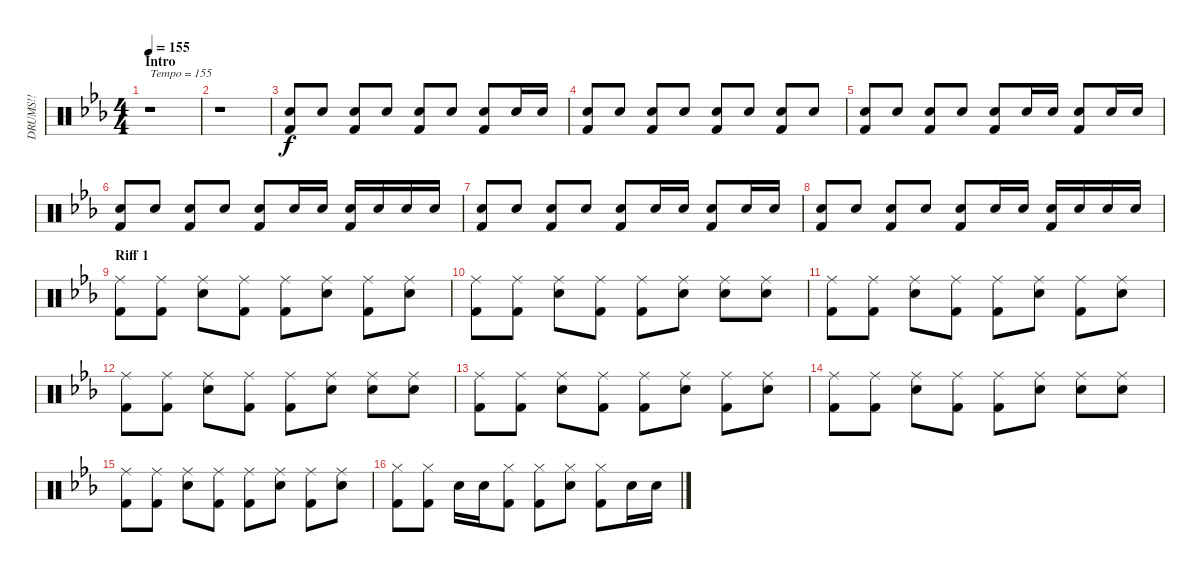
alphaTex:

\track ("DRUMS!!" "DRUMS!!") {instrument percussion}
\staff {score}
\articulation defaults
\ts (4 4)
\section ("" "Intro")
\tempo 155
\clef neutral
\ks cminor
r.1{txt "Tempo = 155" dy f} |
r.1 |
("Snare (hit) 2" "Kick (hit) 2").8 "Snare (hit) 2".8 ("Snare (hit) 2" "Kick (hit) 2").8 "Snare (hit) 2".8 ("Snare (hit) 2" "Kick (hit) 2").8 "Snare (hit) 2".8 ("Snare (hit) 2" "Kick (hit) 2").8 "Snare (hit) 2".16 "Snare (hit) 2".16 |
("Snare (hit) 2" "Kick (hit) 2").8 "Snare (hit) 2".8 ("Snare (hit) 2" "Kick (hit) 2").8 "Snare (hit) 2".8 ("Snare (hit) 2" "Kick (hit) 2").8 "Snare (hit) 2".8 ("Snare (hit) 2" "Kick (hit) 2").8 "Snare (hit) 2".8 |
("Snare (hit) 2" "Kick (hit) 2").8 "Snare (hit) 2".8 ("Snare (hit) 2" "Kick (hit) 2").8 "Snare (hit) 2".8 ("Snare (hit) 2" "Kick (hit) 2").8 "Snare (hit) 2".16 "Snare (hit) 2".16 ("Snare (hit) 2" "Kick (hit) 2").8 "Snare (hit) 2".16 "Snare (hit) 2".16 |
("Snare (hit) 2" "Kick (hit) 2").8 "Snare (hit) 2".8 ("Snare (hit) 2" "Kick (hit) 2").8 "Snare (hit) 2".8 ("Snare (hit) 2" "Kick (hit) 2").8 "Snare (hit) 2".16 "Snare (hit) 2".16 ("Snare (hit) 2" "Kick (hit) 2").16 "Snare (hit) 2".16 "Snare (hit) 2".16 "Snare (hit) 2".16 |
("Snare (hit) 2" "Kick (hit) 2").8 "Snare (hit) 2".8 ("Snare (hit) 2" "Kick (hit) 2").8 "Snare (hit) 2".8 ("Snare (hit) 2" "Kick (hit) 2").8 "Snare (hit) 2".16 "Snare (hit) 2".16 ("Snare (hit) 2" "Kick (hit) 2").8 "Snare (hit) 2".16 "Snare (hit) 2".16 |
("Snare (hit) 2" "Kick (hit) 2").8 "Snare (hit) 2".8 ("Snare (hit) 2" "Kick (hit) 2").8 "Snare (hit) 2".8 ("Snare (hit) 2" "Kick (hit) 2").8 "Snare (hit) 2".16 "Snare (hit) 2".16 ("Snare (hit) 2" "Kick (hit) 2").16 "Snare (hit) 2".16 "Snare (hit) 2".16 "Snare (hit) 2".16 |
\section ("" "Riff 1")
("Ride (middle)" "Kick (hit) 2").8 ("Ride (middle)" "Kick (hit) 2").8 ("Ride (middle)" "Snare (hit) 2").8 ("Ride (middle)" "Kick (hit) 2").8 ("Ride (middle)" "Kick (hit) 2").8 ("Ride (middle)" "Snare (hit) 2").8 ("Ride (middle)" "Kick (hit) 2").8 ("Ride (middle)" "Snare (hit) 2").8 |
("Ride (middle)" "Kick (hit) 2").8 ("Ride (middle)" "Kick (hit) 2").8 ("Ride (middle)" "Snare (hit) 2").8 ("Ride (middle)" "Kick (hit) 2").8 ("Ride (middle)" "Kick (hit) 2").8 ("Ride (middle)" "Snare (hit) 2").8 ("Ride (middle)" "Snare (hit) 2").8 ("Ride (middle)" "Snare (hit) 2").8 |
("Ride (middle)" "Kick (hit) 2").8 ("Ride (middle)" "Kick (hit) 2").8 ("Ride (middle)" "Snare (hit) 2").8 ("Ride (middle)" "Kick (hit) 2").8 ("Ride (middle)" "Kick (hit) 2").8 ("Ride (middle)" "Snare (hit) 2").8 ("Ride (middle)" "Kick (hit) 2").8 ("Ride (middle)" "Snare (hit) 2").8 |
("Ride (middle)" "Kick (hit) 2").8 ("Ride (middle)" "Kick (hit) 2").8 ("Ride (middle)" "Snare (hit) 2").8 ("Ride (middle)" "Kick (hit) 2").8 ("Ride (middle)" "Kick (hit) 2").8 ("Ride (middle)" "Snare (hit) 2").8 ("Ride (middle)" "Snare (hit) 2").8 ("Ride (middle)" "Snare (hit) 2").8 |
("Ride (middle)" "Kick (hit) 2").8 ("Ride (middle)" "Kick (hit) 2").8 ("Ride (middle)" "Snare (hit) 2").8 ("Ride (middle)" "Kick (hit) 2").8 ("Ride (middle)" "Kick (hit) 2").8 ("Ride (middle)" "Snare (hit) 2").8 ("Ride (middle)" "Kick (hit) 2").8 ("Ride (middle)" "Snare (hit) 2").8 |
("Ride (middle)" "Kick (hit) 2").8 ("Ride (middle)" "Kick (hit) 2").8 ("Ride (middle)" "Snare (hit) 2").8 ("Ride (middle)" "Kick (hit) 2").8 ("Ride (middle)" "Kick (hit) 2").8 ("Ride (middle)" "Snare (hit) 2").8 ("Ride (middle)" "Snare (hit) 2").8 ("Ride (middle)" "Snare (hit) 2").8 |
("Ride (middle)" "Kick (hit) 2").8 ("Ride (middle)" "Kick (hit) 2").8 ("Ride (middle)" "Snare (hit) 2").8 ("Ride (middle)" "Kick (hit) 2").8 ("Ride (middle)" "Kick (hit) 2").8 ("Ride (middle)" "Snare (hit) 2").8 ("Ride (middle)" "Kick (hit) 2").8 ("Ride (middle)" "Snare (hit) 2").8 |
("Hi-Hat (closed)" "Kick (hit) 2").8 ("Hi-Hat (closed)" "Kick (hit) 2").8 "Snare (hit) 2".16 "Snare (hit) 2".16 ("Hi-Hat (closed)" "Kick (hit) 2").8 ("Hi-Hat (closed)" "Kick (hit) 2").8 ("Hi-Hat (closed)" "Snare (hit) 2").8 ("Hi-Hat (closed)" "Kick (hit) 2").8 "Snare (hit) 2".16 "Snare (hit) 2".16
